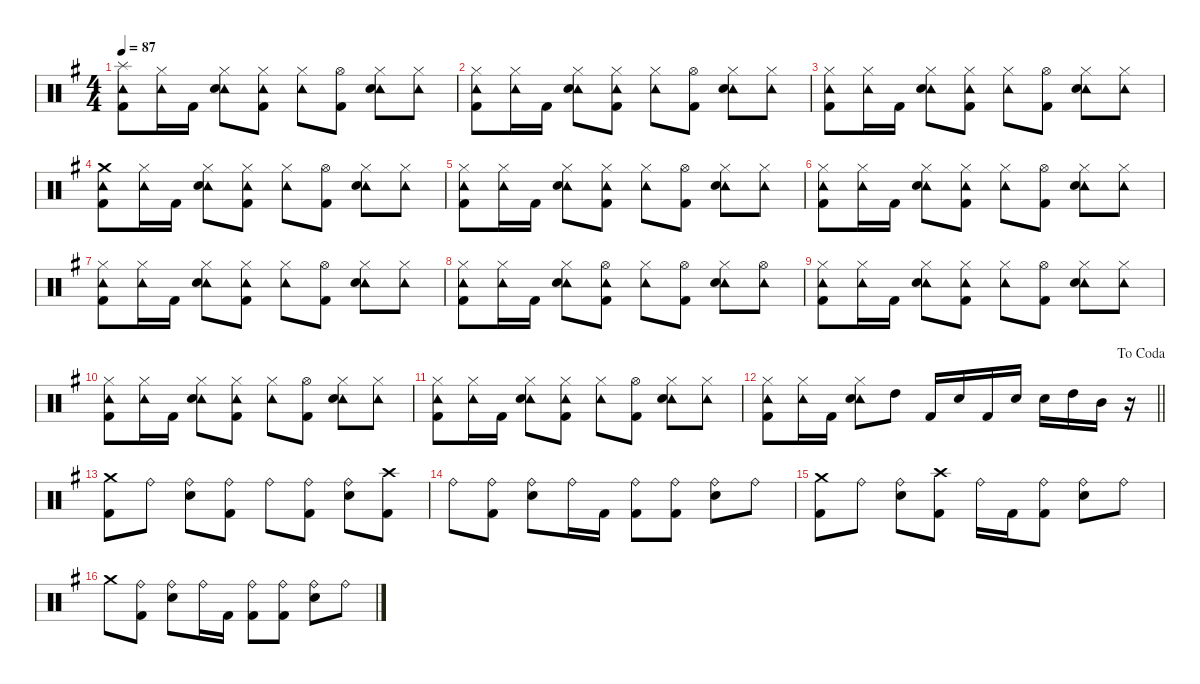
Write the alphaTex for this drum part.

\defaultSystemsLayout 4
\hideDynamics
\bracketExtendMode nobrackets
\singleTrackTrackNamePolicy hidden
\multiTrackTrackNamePolicy hidden
\otherSystemsTrackNameOrientation horizontal
\track ("Drums" "drm.") {defaultSystemsLayout 4 instrument percussion}
\staff {score}
\articulation defaults
\ts (4 4)
\tempo 87
\clef neutral
\ks eminor
("Tambourine (hit)"{acc forcenatural} "Splash (hit)"{acc forcenatural} "Kick (hit) 2"{acc forcenatural}).8{dy f beam Down} ("Tambourine (hit)"{acc forcenatural} "Hi-Hat (closed)"{acc forcenatural}).16{beam Down} "Kick (hit) 2"{acc forcenatural}.16{beam Down} ("Tambourine (hit)"{acc forcenatural} "Hi-Hat (closed)"{acc forcenatural} "Snare (hit) 2"{acc forcenatural}).8{beam Down} ("Tambourine (hit)"{acc forcenatural} "Hi-Hat (closed)"{acc forcenatural} "Kick (hit) 2"{acc forcenatural}).8{beam Down} ("Tambourine (hit)"{acc forcenatural} "Hi-Hat (closed)"{acc forcenatural}).8{beam Down} ("Hi-Hat (open)"{acc forcenatural} "Kick (hit) 2"{acc forcenatural}).8{beam Down} ("Tambourine (hit)"{acc forcenatural} "Hi-Hat (closed)"{acc forcenatural} "Snare (hit) 2"{acc forcenatural}).8{beam Down} ("Tambourine (hit)"{acc forcenatural} "Hi-Hat (closed)"{acc forcenatural}).8{beam Down} |
("Tambourine (hit)"{acc forcenatural} "Hi-Hat (closed)"{acc forcenatural} "Kick (hit) 2"{acc forcenatural}).8{beam Down} ("Tambourine (hit)"{acc forcenatural} "Hi-Hat (closed)"{acc forcenatural}).16{beam Down} "Kick (hit) 2"{acc forcenatural}.16{beam Down} ("Tambourine (hit)"{acc forcenatural} "Hi-Hat (closed)"{acc forcenatural} "Snare (hit) 2"{acc forcenatural}).8{beam Down} ("Tambourine (hit)"{acc forcenatural} "Hi-Hat (closed)"{acc forcenatural} "Kick (hit) 2"{acc forcenatural}).8{beam Down} ("Tambourine (hit)"{acc forcenatural} "Hi-Hat (closed)"{acc forcenatural}).8{beam Down} ("Hi-Hat (open)"{acc forcenatural} "Kick (hit) 2"{acc forcenatural}).8{beam Down} ("Tambourine (hit)"{acc forcenatural} "Hi-Hat (closed)"{acc forcenatural} "Snare (hit) 2"{acc forcenatural}).8{beam Down} ("Tambourine (hit)"{acc forcenatural} "Hi-Hat (closed)"{acc forcenatural}).8{beam Down} |
("Tambourine (hit)"{acc forcenatural} "Hi-Hat (closed)"{acc forcenatural} "Kick (hit) 2"{acc forcenatural}).8{beam Down} ("Tambourine (hit)"{acc forcenatural} "Hi-Hat (closed)"{acc forcenatural}).16{beam Down} "Kick (hit) 2"{acc forcenatural}.16{beam Down} ("Tambourine (hit)"{acc forcenatural} "Hi-Hat (closed)"{acc forcenatural} "Snare (hit) 2"{acc forcenatural}).8{beam Down} ("Tambourine (hit)"{acc forcenatural} "Hi-Hat (closed)"{acc forcenatural} "Kick (hit) 2"{acc forcenatural}).8{beam Down} ("Tambourine (hit)"{acc forcenatural} "Hi-Hat (closed)"{acc forcenatural}).8{beam Down} ("Hi-Hat (open)"{acc forcenatural} "Kick (hit) 2"{acc forcenatural}).8{beam Down} ("Tambourine (hit)"{acc forcenatural} "Hi-Hat (closed)"{acc forcenatural} "Snare (hit) 2"{acc forcenatural}).8{beam Down} ("Tambourine (hit)"{acc forcenatural} "Hi-Hat (closed)"{acc forcenatural}).8{beam Down} |
("Tambourine (hit)"{acc forcenatural} "Crash medium (hit)"{acc forcenatural} "Kick (hit) 2"{acc forcenatural}).8{beam Down} ("Tambourine (hit)"{acc forcenatural} "Hi-Hat (closed)"{acc forcenatural}).16{beam Down} "Kick (hit) 2"{acc forcenatural}.16{beam Down} ("Tambourine (hit)"{acc forcenatural} "Hi-Hat (closed)"{acc forcenatural} "Snare (hit) 2"{acc forcenatural}).8{beam Down} ("Tambourine (hit)"{acc forcenatural} "Hi-Hat (closed)"{acc forcenatural} "Kick (hit) 2"{acc forcenatural}).8{beam Down} ("Tambourine (hit)"{acc forcenatural} "Hi-Hat (closed)"{acc forcenatural}).8{beam Down} ("Hi-Hat (open)"{acc forcenatural} "Kick (hit) 2"{acc forcenatural}).8{beam Down} ("Tambourine (hit)"{acc forcenatural} "Hi-Hat (closed)"{acc forcenatural} "Snare (hit) 2"{acc forcenatural}).8{beam Down} ("Tambourine (hit)"{acc forcenatural} "Hi-Hat (closed)"{acc forcenatural}).8{beam Down} |
("Tambourine (hit)"{acc forcenatural} "Hi-Hat (closed)"{acc forcenatural} "Kick (hit) 2"{acc forcenatural}).8{beam Down} ("Tambourine (hit)"{acc forcenatural} "Hi-Hat (closed)"{acc forcenatural}).16{beam Down} "Kick (hit) 2"{acc forcenatural}.16{beam Down} ("Tambourine (hit)"{acc forcenatural} "Hi-Hat (closed)"{acc forcenatural} "Snare (hit) 2"{acc forcenatural}).8{beam Down} ("Tambourine (hit)"{acc forcenatural} "Hi-Hat (closed)"{acc forcenatural} "Kick (hit) 2"{acc forcenatural}).8{beam Down} ("Tambourine (hit)"{acc forcenatural} "Hi-Hat (closed)"{acc forcenatural}).8{beam Down} ("Hi-Hat (open)"{acc forcenatural} "Kick (hit) 2"{acc forcenatural}).8{beam Down} ("Tambourine (hit)"{acc forcenatural} "Hi-Hat (closed)"{acc forcenatural} "Snare (hit) 2"{acc forcenatural}).8{beam Down} ("Tambourine (hit)"{acc forcenatural} "Hi-Hat (closed)"{acc forcenatural}).8{beam Down} |
("Tambourine (hit)"{acc forcenatural} "Hi-Hat (closed)"{acc forcenatural} "Kick (hit) 2"{acc forcenatural}).8{beam Down} ("Tambourine (hit)"{acc forcenatural} "Hi-Hat (closed)"{acc forcenatural}).16{beam Down} "Kick (hit) 2"{acc forcenatural}.16{beam Down} ("Tambourine (hit)"{acc forcenatural} "Hi-Hat (closed)"{acc forcenatural} "Snare (hit) 2"{acc forcenatural}).8{beam Down} ("Tambourine (hit)"{acc forcenatural} "Hi-Hat (closed)"{acc forcenatural} "Kick (hit) 2"{acc forcenatural}).8{beam Down} ("Tambourine (hit)"{acc forcenatural} "Hi-Hat (closed)"{acc forcenatural}).8{beam Down} ("Hi-Hat (open)"{acc forcenatural} "Kick (hit) 2"{acc forcenatural}).8{beam Down} ("Tambourine (hit)"{acc forcenatural} "Hi-Hat (closed)"{acc forcenatural} "Snare (hit) 2"{acc forcenatural}).8{beam Down} ("Tambourine (hit)"{acc forcenatural} "Hi-Hat (closed)"{acc forcenatural}).8{beam Down} |
("Tambourine (hit)"{acc forcenatural} "Hi-Hat (closed)"{acc forcenatural} "Kick (hit) 2"{acc forcenatural}).8{beam Down} ("Tambourine (hit)"{acc forcenatural} "Hi-Hat (closed)"{acc forcenatural}).16{beam Down} "Kick (hit) 2"{acc forcenatural}.16{beam Down} ("Tambourine (hit)"{acc forcenatural} "Hi-Hat (closed)"{acc forcenatural} "Snare (hit) 2"{acc forcenatural}).8{beam Down} ("Tambourine (hit)"{acc forcenatural} "Hi-Hat (closed)"{acc forcenatural} "Kick (hit) 2"{acc forcenatural}).8{beam Down} ("Tambourine (hit)"{acc forcenatural} "Hi-Hat (closed)"{acc forcenatural}).8{beam Down} ("Hi-Hat (open)"{acc forcenatural} "Kick (hit) 2"{acc forcenatural}).8{beam Down} ("Tambourine (hit)"{acc forcenatural} "Hi-Hat (closed)"{acc forcenatural} "Snare (hit) 2"{acc forcenatural}).8{beam Down} ("Tambourine (hit)"{acc forcenatural} "Hi-Hat (closed)"{acc forcenatural}).8{beam Down} |
("Tambourine (hit)"{acc forcenatural} "Hi-Hat (closed)"{acc forcenatural} "Kick (hit) 2"{acc forcenatural}).8{beam Down} ("Tambourine (hit)"{acc forcenatural} "Hi-Hat (closed)"{acc forcenatural}).16{beam Down} "Kick (hit) 2"{acc forcenatural}.16{beam Down} ("Tambourine (hit)"{acc forcenatural} "Hi-Hat (closed)"{acc forcenatural} "Snare (hit) 2"{acc forcenatural}).8{beam Down} ("Tambourine (hit)"{acc forcenatural} "Hi-Hat (open)"{acc forcenatural} "Kick (hit) 2"{acc forcenatural}).8{beam Down} ("Tambourine (hit)"{acc forcenatural} "Hi-Hat (closed)"{acc forcenatural}).8{beam Down} ("Hi-Hat (open)"{acc forcenatural} "Kick (hit) 2"{acc forcenatural}).8{beam Down} ("Tambourine (hit)"{acc forcenatural} "Hi-Hat (closed)"{acc forcenatural} "Snare (hit) 2"{acc forcenatural}).8{beam Down} ("Tambourine (hit)"{acc forcenatural} "Hi-Hat (open)"{acc forcenatural}).8{beam Down} |
("Tambourine (hit)"{acc forcenatural} "Hi-Hat (closed)"{acc forcenatural} "Kick (hit) 2"{acc forcenatural}).8{beam Down} ("Tambourine (hit)"{acc forcenatural} "Hi-Hat (closed)"{acc forcenatural}).16{beam Down} "Kick (hit) 2"{acc forcenatural}.16{beam Down} ("Tambourine (hit)"{acc forcenatural} "Hi-Hat (closed)"{acc forcenatural} "Snare (hit) 2"{acc forcenatural}).8{beam Down} ("Tambourine (hit)"{acc forcenatural} "Hi-Hat (closed)"{acc forcenatural} "Kick (hit) 2"{acc forcenatural}).8{beam Down} ("Tambourine (hit)"{acc forcenatural} "Hi-Hat (closed)"{acc forcenatural}).8{beam Down} ("Hi-Hat (open)"{acc forcenatural} "Kick (hit) 2"{acc forcenatural}).8{beam Down} ("Tambourine (hit)"{acc forcenatural} "Hi-Hat (closed)"{acc forcenatural} "Snare (hit) 2"{acc forcenatural}).8{beam Down} ("Tambourine (hit)"{acc forcenatural} "Hi-Hat (closed)"{acc forcenatural}).8{beam Down} |
("Tambourine (hit)"{acc forcenatural} "Hi-Hat (closed)"{acc forcenatural} "Kick (hit) 2"{acc forcenatural}).8{beam Down} ("Tambourine (hit)"{acc forcenatural} "Hi-Hat (closed)"{acc forcenatural}).16{beam Down} "Kick (hit) 2"{acc forcenatural}.16{beam Down} ("Tambourine (hit)"{acc forcenatural} "Hi-Hat (closed)"{acc forcenatural} "Snare (hit) 2"{acc forcenatural}).8{beam Down} ("Tambourine (hit)"{acc forcenatural} "Hi-Hat (closed)"{acc forcenatural} "Kick (hit) 2"{acc forcenatural}).8{beam Down} ("Tambourine (hit)"{acc forcenatural} "Hi-Hat (closed)"{acc forcenatural}).8{beam Down} ("Hi-Hat (open)"{acc forcenatural} "Kick (hit) 2"{acc forcenatural}).8{beam Down} ("Tambourine (hit)"{acc forcenatural} "Hi-Hat (closed)"{acc forcenatural} "Snare (hit) 2"{acc forcenatural}).8{beam Down} ("Tambourine (hit)"{acc forcenatural} "Hi-Hat (closed)"{acc forcenatural}).8{beam Down} |
("Tambourine (hit)"{acc forcenatural} "Hi-Hat (closed)"{acc forcenatural} "Kick (hit) 2"{acc forcenatural}).8{beam Down} ("Tambourine (hit)"{acc forcenatural} "Hi-Hat (closed)"{acc forcenatural}).16{beam Down} "Kick (hit) 2"{acc forcenatural}.16{beam Down} ("Tambourine (hit)"{acc forcenatural} "Hi-Hat (closed)"{acc forcenatural} "Snare (hit) 2"{acc forcenatural}).8{beam Down} ("Tambourine (hit)"{acc forcenatural} "Hi-Hat (closed)"{acc forcenatural} "Kick (hit) 2"{acc forcenatural}).8{beam Down} ("Tambourine (hit)"{acc forcenatural} "Hi-Hat (closed)"{acc forcenatural}).8{beam Down} ("Hi-Hat (open)"{acc forcenatural} "Kick (hit) 2"{acc forcenatural}).8{beam Down} ("Tambourine (hit)"{acc forcenatural} "Hi-Hat (closed)"{acc forcenatural} "Snare (hit) 2"{acc forcenatural}).8{beam Down} ("Tambourine (hit)"{acc forcenatural} "Hi-Hat (closed)"{acc forcenatural}).8{beam Down} |
\jump dacoda
\barLineRight lightlight
("Tambourine (hit)"{acc forcenatural} "Hi-Hat (closed)"{acc forcenatural} "Kick (hit) 2"{acc forcenatural}).8{beam Down} ("Tambourine (hit)"{acc forcenatural} "Hi-Hat (closed)"{acc forcenatural}).16{beam Down} "Kick (hit) 2"{acc forcenatural}.16{beam Down} ("Tambourine (hit)"{acc forcenatural} "Hi-Hat (closed)"{acc forcenatural} "Snare (hit) 2"{acc forcenatural}).8{beam Down} "High Tom (hit)"{acc forcenatural}.8{beam Down} "Kick (hit) 2"{acc forcenatural}.16{beam Up} "Snare (hit) 2"{acc forcenatural}.16{beam Up} "Kick (hit) 2"{acc forcenatural}.16{beam Up} "Snare (hit) 2"{acc forcenatural}.16{beam Up} "Snare (hit) 2"{acc forcenatural}.16{beam Down} "High Tom (hit)"{acc forcenatural}.16{beam Down} "Mid Tom (hit)"{acc forcenatural}.16{beam Down} r.16{beam Down} |
("Crash medium (hit)"{acc forcenatural} "Kick (hit) 2"{acc forcenatural}).8{beam Down} "Ride (bell)"{acc forcenatural}.8{beam Down} ("Ride (bell)"{acc forcenatural} "Snare (hit) 2"{acc forcenatural}).8{beam Down} ("Ride (bell)"{acc forcenatural} "Kick (hit) 2"{acc forcenatural}).8{beam Down} "Ride (bell)"{acc forcenatural}.8{beam Down} ("Ride (bell)"{acc forcenatural} "Kick (hit) 2"{acc forcenatural}).8{beam Down} ("Ride (bell)"{acc forcenatural} "Snare (hit) 2"{acc forcenatural}).8{beam Down} ("Crash high (hit)"{acc forcenatural} "Kick (hit) 2"{acc forcenatural}).8{beam Down} |
"Ride (bell)"{acc forcenatural}.8{beam Down} ("Ride (bell)"{acc forcenatural} "Kick (hit) 2"{acc forcenatural}).8{beam Down} ("Ride (bell)"{acc forcenatural} "Snare (hit) 2"{acc forcenatural}).8{beam Down} "Ride (bell)"{acc forcenatural}.16{beam Down} "Kick (hit) 2"{acc forcenatural}.16{beam Down} ("Ride (bell)"{acc forcenatural} "Kick (hit) 2"{acc forcenatural}).8{beam Down} ("Ride (bell)"{acc forcenatural} "Kick (hit) 2"{acc forcenatural}).8{beam Down} ("Ride (bell)"{acc forcenatural} "Snare (hit) 2"{acc forcenatural}).8{beam Down} "Ride (bell)"{acc forcenatural}.8{beam Down} |
("Crash medium (hit)"{acc forcenatural} "Kick (hit) 2"{acc forcenatural}).8{beam Down} "Ride (bell)"{acc forcenatural}.8{beam Down} ("Ride (bell)"{acc forcenatural} "Snare (hit) 2"{acc forcenatural}).8{beam Down} ("Crash high (hit)"{acc forcenatural} "Kick (hit) 2"{acc forcenatural}).8{beam Down} "Ride (bell)"{acc forcenatural}.16{beam Down} "Kick (hit) 2"{acc forcenatural}.16{beam Down} ("Ride (bell)"{acc forcenatural} "Kick (hit) 2"{acc forcenatural}).8{beam Down} ("Ride (bell)"{acc forcenatural} "Snare (hit) 2"{acc forcenatural}).8{beam Down} "Ride (bell)"{acc forcenatural}.8{beam Down} |
"Crash medium (hit)"{acc forcenatural}.8{beam Down} ("Ride (bell)"{acc forcenatural} "Kick (hit) 2"{acc forcenatural}).8{beam Down} ("Ride (bell)"{acc forcenatural} "Snare (hit) 2"{acc forcenatural}).8{beam Down} "Ride (bell)"{acc forcenatural}.16{beam Down} "Kick (hit) 2"{acc forcenatural}.16{beam Down} ("Ride (bell)"{acc forcenatural} "Kick (hit) 2"{acc forcenatural}).8{beam Down} ("Ride (bell)"{acc forcenatural} "Kick (hit) 2"{acc forcenatural}).8{beam Down} ("Ride (bell)"{acc forcenatural} "Snare (hit) 2"{acc forcenatural}).8{beam Down} "Ride (bell)"{acc forcenatural}.8{beam Down}
